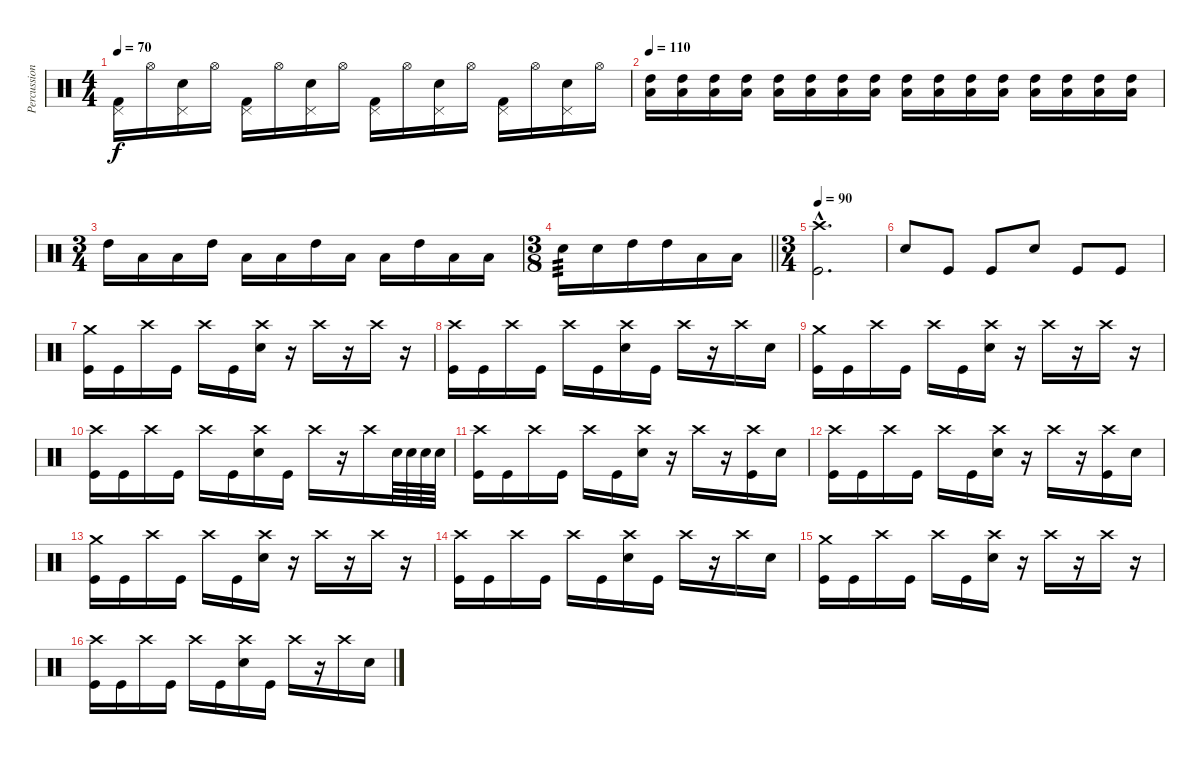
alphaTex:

\track ("Percussion" "Percussion") {instrument percussion}
\staff {score}
\articulation defaults
\ts (4 4)
\tempo 70
\clef neutral
\ks c
("Pedal Hi-Hat (hit)" "Kick (hit) 2").16{dy f} "Hi-Hat (open)".16 ("Pedal Hi-Hat (hit)" "Electric Snare (hit)").16 "Hi-Hat (open)".16 ("Pedal Hi-Hat (hit)" "Kick (hit) 2").16 "Hi-Hat (open)".16 ("Pedal Hi-Hat (hit)" "Electric Snare (hit)").16 "Hi-Hat (open)".16 ("Pedal Hi-Hat (hit)" "Kick (hit) 2").16 "Hi-Hat (open)".16 ("Pedal Hi-Hat (hit)" "Electric Snare (hit)").16 "Hi-Hat (open)".16 ("Pedal Hi-Hat (hit)" "Kick (hit) 2").16 "Hi-Hat (open)".16 ("Pedal Hi-Hat (hit)" "Electric Snare (hit)").16 "Hi-Hat (open)".16 |
\tempo 110
("High Tom (hit)" "Low Floor Tom (hit)").16 ("High Tom (hit)" "Low Floor Tom (hit)").16 ("High Tom (hit)" "Low Floor Tom (hit)").16 ("High Tom (hit)" "Low Floor Tom (hit)").16 ("High Tom (hit)" "Low Floor Tom (hit)").16 ("High Tom (hit)" "Low Floor Tom (hit)").16 ("High Tom (hit)" "Low Floor Tom (hit)").16 ("High Tom (hit)" "Low Floor Tom (hit)").16 ("High Tom (hit)" "Low Floor Tom (hit)").16 ("High Tom (hit)" "Low Floor Tom (hit)").16 ("High Tom (hit)" "Low Floor Tom (hit)").16 ("High Tom (hit)" "Low Floor Tom (hit)").16 ("High Tom (hit)" "Low Floor Tom (hit)").16 ("High Tom (hit)" "Low Floor Tom (hit)").16 ("High Tom (hit)" "Low Floor Tom (hit)").16 ("High Tom (hit)" "Low Floor Tom (hit)").16 |
\ts (3 4)
"High Tom (hit)".16 "Low Tom (hit)".16 "Low Floor Tom (hit)".16 "High Tom (hit)".16 "Low Tom (hit)".16 "Low Floor Tom (hit)".16 "High Tom (hit)".16 "Low Tom (hit)".16 "Low Floor Tom (hit)".16 "High Tom (hit)".16 "Low Tom (hit)".16 "Low Floor Tom (hit)".16 |
\ts (3 8)
\barLineRight lightlight "Electric Snare (hit)".16{tp 3} "Electric Snare (hit)".16 "High Tom (hit)".16 "High Tom (hit)".16 "Low Tom (hit)".16 "Low Floor Tom (hit)".16
|
\ts (3 4)
\section ("" "")
\tempo 90
("Kick (hit)"{hac} "Crash high (hit)"{hac}).2{d} |
"Electric Snare (hit)".8 "Kick (hit)".8 "Kick (hit)".8 "Electric Snare (hit)".8 "Kick (hit)".8 "Kick (hit)".8 |
("Kick (hit)" "Crash medium (hit)").16 "Kick (hit)".16 "Crash high (hit)".16 "Kick (hit)".16 "Crash high (hit)".16 "Kick (hit)".16 ("Electric Snare (hit)" "Crash high (hit)").16 r.16 "Crash high (hit)".16 r.16 "Crash high (hit)".16 r.16 |
("Kick (hit)" "Crash high (hit)").16 "Kick (hit)".16 "Crash high (hit)".16 "Kick (hit)".16 "Crash high (hit)".16 "Kick (hit)".16 ("Electric Snare (hit)" "Crash high (hit)").16 "Kick (hit)".16 "Crash high (hit)".16 r.16 "Crash high (hit)".16 "Electric Snare (hit)".16 |
("Kick (hit)" "Crash medium (hit)").16 "Kick (hit)".16 "Crash high (hit)".16 "Kick (hit)".16 "Crash high (hit)".16 "Kick (hit)".16 ("Electric Snare (hit)" "Crash high (hit)").16 r.16 "Crash high (hit)".16 r.16 "Crash high (hit)".16 r.16 |
("Kick (hit)" "Crash high (hit)").16 "Kick (hit)".16 "Crash high (hit)".16 "Kick (hit)".16 "Crash high (hit)".16 "Kick (hit)".16 ("Electric Snare (hit)" "Crash high (hit)").16 "Kick (hit)".16 "Crash high (hit)".16 r.16 "Crash high (hit)".16 "Electric Snare (hit)".64 "Electric Snare (hit)".64 "Electric Snare (hit)".64 "Electric Snare (hit)".64 |
("Kick (hit)" "Crash high (hit)").16 "Kick (hit)".16 "Crash high (hit)".16 "Kick (hit)".16 "Crash high (hit)".16 "Kick (hit)".16 ("Electric Snare (hit)" "Crash high (hit)").16 r.16 "Crash high (hit)".16 r.16 ("Kick (hit)" "Crash high (hit)").16 "Electric Snare (hit)".16 |
("Kick (hit)" "Crash high (hit)").16 "Kick (hit)".16 "Crash high (hit)".16 "Kick (hit)".16 "Crash high (hit)".16 "Kick (hit)".16 ("Electric Snare (hit)" "Crash high (hit)").16 r.16 "Crash high (hit)".16 r.16 ("Kick (hit)" "Crash high (hit)").16 "Electric Snare (hit)".16 |
("Kick (hit)" "Crash medium (hit)").16 "Kick (hit)".16 "Crash high (hit)".16 "Kick (hit)".16 "Crash high (hit)".16 "Kick (hit)".16 ("Electric Snare (hit)" "Crash high (hit)").16 r.16 "Crash high (hit)".16 r.16 "Crash high (hit)".16 r.16 |
("Kick (hit)" "Crash high (hit)").16 "Kick (hit)".16 "Crash high (hit)".16 "Kick (hit)".16 "Crash high (hit)".16 "Kick (hit)".16 ("Electric Snare (hit)" "Crash high (hit)").16 "Kick (hit)".16 "Crash high (hit)".16 r.16 "Crash high (hit)".16 "Electric Snare (hit)".16 |
("Kick (hit)" "Crash medium (hit)").16 "Kick (hit)".16 "Crash high (hit)".16 "Kick (hit)".16 "Crash high (hit)".16 "Kick (hit)".16 ("Electric Snare (hit)" "Crash high (hit)").16 r.16 "Crash high (hit)".16 r.16 "Crash high (hit)".16 r.16 |
("Kick (hit)" "Crash high (hit)").16 "Kick (hit)".16 "Crash high (hit)".16 "Kick (hit)".16 "Crash high (hit)".16 "Kick (hit)".16 ("Electric Snare (hit)" "Crash high (hit)").16 "Kick (hit)".16 "Crash high (hit)".16 r.16 "Crash high (hit)".16 "Electric Snare (hit)".16
